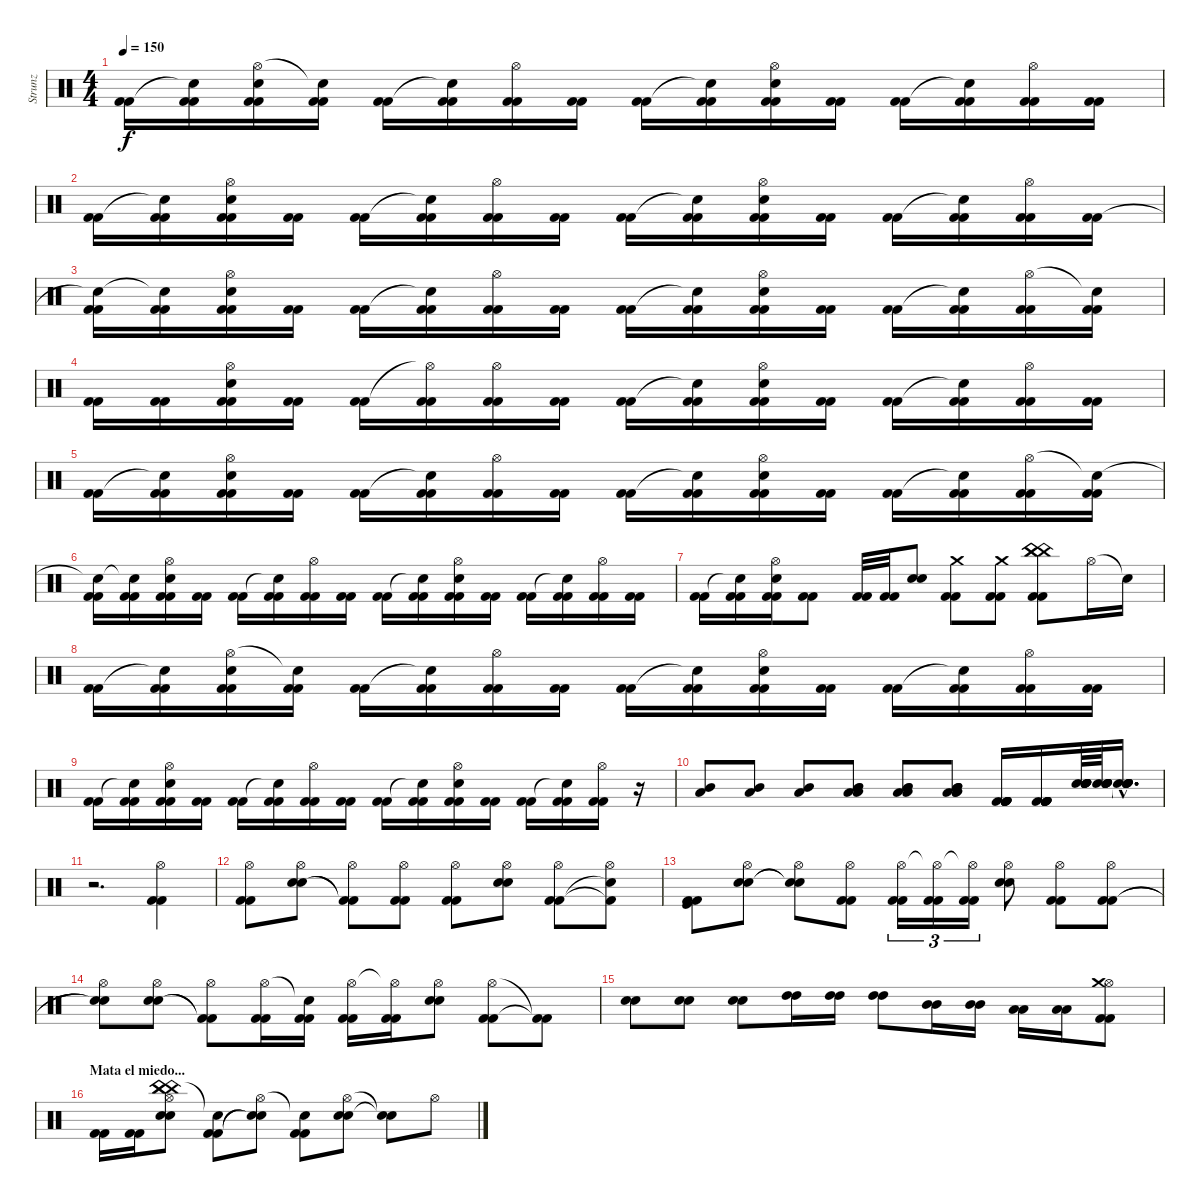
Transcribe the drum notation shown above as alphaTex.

\track ("Strunz" "Strunz") {instrument percussion}
\staff {score}
\articulation defaults
\ts (4 4)
\tempo 150
\clef neutral
\ks c
("Kick (hit) 2" "Kick (hit) 2").16{dy f} ("Snare (hit)"{t} "Kick (hit) 2" "Kick (hit) 2").16 ("Hi-Hat (open)" "Snare (hit) 2" "Kick (hit) 2" "Kick (hit) 2").16 ("Snare (hit)"{t} "Kick (hit) 2" "Kick (hit) 2").16 ("Kick (hit) 2" "Kick (hit) 2").16 ("Snare (hit)"{t} "Kick (hit) 2" "Kick (hit) 2").16 ("Hi-Hat (open)" "Kick (hit) 2" "Kick (hit) 2").16 ("Kick (hit) 2" "Kick (hit) 2").16 ("Kick (hit) 2" "Kick (hit) 2").16 ("Snare (hit)"{t} "Kick (hit) 2" "Kick (hit) 2").16 ("Hi-Hat (open)" "Snare (hit) 2" "Kick (hit) 2" "Kick (hit) 2").16 ("Kick (hit) 2" "Kick (hit) 2").16 ("Kick (hit) 2" "Kick (hit) 2").16 ("Snare (hit)"{t} "Kick (hit) 2" "Kick (hit) 2").16 ("Hi-Hat (open)" "Kick (hit) 2" "Kick (hit) 2").16 ("Kick (hit) 2" "Kick (hit) 2").16 |
("Kick (hit) 2" "Kick (hit) 2").16 ("Snare (hit)"{t} "Kick (hit) 2" "Kick (hit) 2").16 ("Hi-Hat (open)" "Snare (hit) 2" "Kick (hit) 2" "Kick (hit) 2").16 ("Kick (hit) 2" "Kick (hit) 2").16 ("Kick (hit) 2" "Kick (hit) 2").16 ("Snare (hit)"{t} "Kick (hit) 2" "Kick (hit) 2").16 ("Hi-Hat (open)" "Kick (hit) 2" "Kick (hit) 2").16 ("Kick (hit) 2" "Kick (hit) 2").16 ("Kick (hit) 2" "Kick (hit) 2").16 ("Snare (hit)"{t} "Kick (hit) 2" "Kick (hit) 2").16 ("Hi-Hat (open)" "Snare (hit) 2" "Kick (hit) 2" "Kick (hit) 2").16 ("Kick (hit) 2" "Kick (hit) 2").16 ("Kick (hit) 2" "Kick (hit) 2").16 ("Snare (hit)"{t} "Kick (hit) 2" "Kick (hit) 2").16 ("Hi-Hat (open)" "Kick (hit) 2" "Kick (hit) 2").16 ("Kick (hit) 2" "Kick (hit) 2").16 |
("Snare (hit)"{t} "Kick (hit) 2" "Kick (hit) 2").16 ("Snare (hit)"{t} "Kick (hit) 2" "Kick (hit) 2").16 ("Hi-Hat (open)" "Snare (hit) 2" "Kick (hit) 2" "Kick (hit) 2").16 ("Kick (hit) 2" "Kick (hit) 2").16 ("Kick (hit) 2" "Kick (hit) 2").16 ("Snare (hit)"{t} "Kick (hit) 2" "Kick (hit) 2").16 ("Hi-Hat (open)" "Kick (hit) 2" "Kick (hit) 2").16 ("Kick (hit) 2" "Kick (hit) 2").16 ("Kick (hit) 2" "Kick (hit) 2").16 ("Snare (hit)"{t} "Kick (hit) 2" "Kick (hit) 2").16 ("Hi-Hat (open)" "Snare (hit) 2" "Kick (hit) 2" "Kick (hit) 2").16 ("Kick (hit) 2" "Kick (hit) 2").16 ("Kick (hit) 2" "Kick (hit) 2").16 ("Snare (hit)"{t} "Kick (hit) 2" "Kick (hit) 2").16 ("Hi-Hat (open)" "Kick (hit) 2" "Kick (hit) 2").16 ("Snare (hit)"{t} "Kick (hit) 2" "Kick (hit) 2").16 |
("Kick (hit) 2" "Kick (hit) 2").16 ("Kick (hit) 2" "Kick (hit) 2").16 ("Hi-Hat (open)" "Snare (hit) 2" "Kick (hit) 2" "Kick (hit) 2").16 ("Kick (hit) 2" "Kick (hit) 2").16 ("Kick (hit) 2" "Kick (hit) 2").16 ("Hi-Hat (open)"{t} "Kick (hit) 2" "Kick (hit) 2").16 ("Hi-Hat (open)" "Kick (hit) 2" "Kick (hit) 2").16 ("Kick (hit) 2" "Kick (hit) 2").16 ("Kick (hit) 2" "Kick (hit) 2").16 ("Snare (hit)"{t} "Kick (hit) 2" "Kick (hit) 2").16 ("Hi-Hat (open)" "Snare (hit) 2" "Kick (hit) 2" "Kick (hit) 2").16 ("Kick (hit) 2" "Kick (hit) 2").16 ("Kick (hit) 2" "Kick (hit) 2").16 ("Snare (hit)"{t} "Kick (hit) 2" "Kick (hit) 2").16 ("Hi-Hat (open)" "Kick (hit) 2" "Kick (hit) 2").16 ("Kick (hit) 2" "Kick (hit) 2").16 |
("Kick (hit) 2" "Kick (hit) 2").16 ("Snare (hit)"{t} "Kick (hit) 2" "Kick (hit) 2").16 ("Hi-Hat (open)" "Snare (hit) 2" "Kick (hit) 2" "Kick (hit) 2").16 ("Kick (hit) 2" "Kick (hit) 2").16 ("Kick (hit) 2" "Kick (hit) 2").16 ("Snare (hit)"{t} "Kick (hit) 2" "Kick (hit) 2").16 ("Hi-Hat (open)" "Kick (hit) 2" "Kick (hit) 2").16 ("Kick (hit) 2" "Kick (hit) 2").16 ("Kick (hit) 2" "Kick (hit) 2").16 ("Snare (hit)"{t} "Kick (hit) 2" "Kick (hit) 2").16 ("Hi-Hat (open)" "Snare (hit) 2" "Kick (hit) 2" "Kick (hit) 2").16 ("Kick (hit) 2" "Kick (hit) 2").16 ("Kick (hit) 2" "Kick (hit) 2").16 ("Snare (hit)"{t} "Kick (hit) 2" "Kick (hit) 2").16 ("Hi-Hat (open)" "Kick (hit) 2" "Kick (hit) 2").16 ("Snare (hit)"{t} "Kick (hit) 2" "Kick (hit) 2").16 |
("Snare (hit)"{t} "Kick (hit) 2" "Kick (hit) 2").16 ("Snare (hit)"{t} "Kick (hit) 2" "Kick (hit) 2").16 ("Hi-Hat (open)" "Snare (hit) 2" "Kick (hit) 2" "Kick (hit) 2").16 ("Kick (hit) 2" "Kick (hit) 2").16 ("Kick (hit) 2" "Kick (hit) 2").16 ("Snare (hit)"{t} "Kick (hit) 2" "Kick (hit) 2").16 ("Hi-Hat (open)" "Kick (hit) 2" "Kick (hit) 2").16 ("Kick (hit) 2" "Kick (hit) 2").16 ("Kick (hit) 2" "Kick (hit) 2").16 ("Snare (hit)"{t} "Kick (hit) 2" "Kick (hit) 2").16 ("Hi-Hat (open)" "Snare (hit) 2" "Kick (hit) 2" "Kick (hit) 2").16 ("Kick (hit) 2" "Kick (hit) 2").16 ("Kick (hit) 2" "Kick (hit) 2").16 ("Snare (hit)"{t} "Kick (hit) 2" "Kick (hit) 2").16 ("Hi-Hat (open)" "Kick (hit) 2" "Kick (hit) 2").16 ("Kick (hit) 2" "Kick (hit) 2").16 |
("Kick (hit) 2" "Kick (hit) 2").16 ("Snare (hit)"{t} "Kick (hit) 2" "Kick (hit) 2").16 ("Hi-Hat (open)" "Snare (hit) 2" "Kick (hit) 2" "Kick (hit) 2").16 ("Kick (hit) 2" "Kick (hit) 2").8 ("Kick (hit) 2" "Kick (hit) 2").32 ("Kick (hit) 2" "Kick (hit) 2").32 ("Snare (hit) 2" "Snare (hit) 2").8 ("Crash medium (hit)" "Kick (hit) 2" "Kick (hit) 2").8 ("Crash medium (hit)" "Kick (hit) 2" "Kick (hit) 2").8 ("China (hit)" "China (hit)" "China (hit)" "Kick (hit) 2" "Kick (hit) 2").8 "Hi-Hat (open)".16 "Snare (hit)"{t}.16 |
("Kick (hit) 2" "Kick (hit) 2").16 ("Snare (hit)"{t} "Kick (hit) 2" "Kick (hit) 2").16 ("Hi-Hat (open)" "Snare (hit) 2" "Kick (hit) 2" "Kick (hit) 2").16 ("Snare (hit)"{t} "Kick (hit) 2" "Kick (hit) 2").16 ("Kick (hit) 2" "Kick (hit) 2").16 ("Snare (hit)"{t} "Kick (hit) 2" "Kick (hit) 2").16 ("Hi-Hat (open)" "Kick (hit) 2" "Kick (hit) 2").16 ("Kick (hit) 2" "Kick (hit) 2").16 ("Kick (hit) 2" "Kick (hit) 2").16 ("Snare (hit)"{t} "Kick (hit) 2" "Kick (hit) 2").16 ("Hi-Hat (open)" "Snare (hit) 2" "Kick (hit) 2" "Kick (hit) 2").16 ("Kick (hit) 2" "Kick (hit) 2").16 ("Kick (hit) 2" "Kick (hit) 2").16 ("Snare (hit)"{t} "Kick (hit) 2" "Kick (hit) 2").16 ("Hi-Hat (open)" "Kick (hit) 2" "Kick (hit) 2").16 ("Kick (hit) 2" "Kick (hit) 2").16 |
("Kick (hit) 2" "Kick (hit) 2").16 ("Snare (hit)"{t} "Kick (hit) 2" "Kick (hit) 2").16 ("Hi-Hat (open)" "Snare (hit) 2" "Kick (hit) 2" "Kick (hit) 2").16 ("Kick (hit) 2" "Kick (hit) 2").16 ("Kick (hit) 2" "Kick (hit) 2").16 ("Snare (hit)"{t} "Kick (hit) 2" "Kick (hit) 2").16 ("Hi-Hat (open)" "Kick (hit) 2" "Kick (hit) 2").16 ("Kick (hit) 2" "Kick (hit) 2").16 ("Kick (hit) 2" "Kick (hit) 2").16 ("Snare (hit)"{t} "Kick (hit) 2" "Kick (hit) 2").16 ("Hi-Hat (open)" "Snare (hit) 2" "Kick (hit) 2" "Kick (hit) 2").16 ("Kick (hit) 2" "Kick (hit) 2").16 ("Kick (hit) 2" "Kick (hit) 2").16 ("Snare (hit)"{t} "Kick (hit) 2" "Kick (hit) 2").16 ("Hi-Hat (open)" "Kick (hit) 2" "Kick (hit) 2").16 r.16 |
("Mid Tom (hit)" "Low Tom (hit)").8 ("Mid Tom (hit)" "Low Tom (hit)").8 ("Mid Tom (hit)" "Low Tom (hit)").8 ("Low Tom (hit)" "Low Tom (hit)" "Mid Tom (hit)" "Mid Tom (hit)").8 ("Low Tom (hit)" "Low Tom (hit)" "Mid Tom (hit)" "Mid Tom (hit)").8 ("Low Tom (hit)" "Low Tom (hit)" "Low Tom (hit)" "Mid Tom (hit)" "Mid Tom (hit)" "Mid Tom (hit)").8 ("Kick (hit) 2" "Kick (hit) 2" "Kick (hit) 2" "Kick (hit) 2" "Kick (hit) 2" "Kick (hit) 2").16 ("Kick (hit) 2" "Kick (hit) 2" "Kick (hit) 2" "Kick (hit) 2" "Kick (hit) 2" "Kick (hit) 2").16 ("Snare (hit) 2" "Snare (hit) 2" "Snare (hit) 2" "Snare (hit) 2" "Snare (hit) 2" "Snare (hit) 2").64 ("Snare (hit) 2" "Snare (hit) 2" "Snare (hit) 2" "Snare (hit) 2" "Snare (hit) 2" "Snare (hit) 2").64 ("Snare (hit)"{hac t} "Snare (hit)"{hac t} "Snare (hit)"{hac t} "Snare (hit)"{hac t} "Snare (hit)"{hac t} "Snare (hit)"{hac t}).16{d} |
r.2{d} ("Hi-Hat (open)" "Kick (hit) 2" "Kick (hit) 2").4 |
("Hi-Hat (open)" "Kick (hit) 2" "Kick (hit) 2").8 ("Hi-Hat (open)" "Snare (hit) 2" "Snare (hit) 2").8 ("Hi-Hat (open)" "Kick (hit) 2"{t} "Kick (hit) 2"{t}).8 ("Hi-Hat (open)" "Kick (hit) 2" "Kick (hit) 2").8 ("Hi-Hat (open)" "Kick (hit) 2" "Kick (hit) 2").8 ("Hi-Hat (open)" "Snare (hit) 2" "Snare (hit) 2").8 ("Hi-Hat (open)" "Kick (hit) 2" "Kick (hit) 2").8 ("Hi-Hat (open)" "Kick (hit) 2"{t} "Snare (hit)"{t}).8 |
("Kick (hit)" "Kick (hit) 2" "Kick (hit) 2").8 ("Hi-Hat (open)" "Snare (hit) 2" "Snare (hit) 2").8 ("Hi-Hat (open)" "Snare (hit)"{t} "Snare (hit)"{t}).8 ("Hi-Hat (open)" "Kick (hit) 2" "Kick (hit) 2").8 ("Hi-Hat (open)" "Kick (hit) 2" "Kick (hit) 2").16{tu (3 2)} ("Hi-Hat (open)"{t} "Kick (hit) 2" "Kick (hit) 2").16{tu (3 2)} ("Hi-Hat (open)"{t} "Kick (hit) 2" "Kick (hit) 2").16{tu (3 2)} ("Hi-Hat (open)" "Snare (hit) 2" "Snare (hit) 2").8 ("Hi-Hat (open)" "Kick (hit) 2" "Kick (hit) 2").8 ("Hi-Hat (open)" "Kick (hit) 2" "Kick (hit) 2").8 |
("Hi-Hat (open)" "Snare (hit) 2"{t} "Snare (hit) 2"{t}).8 ("Hi-Hat (open)" "Snare (hit) 2" "Snare (hit) 2").8 ("Hi-Hat (open)" "Kick (hit) 2"{t} "Kick (hit) 2"{t}).8 ("Hi-Hat (open)" "Kick (hit) 2" "Kick (hit) 2").16 ("Snare (hit)"{t} "Kick (hit) 2" "Kick (hit) 2").16 ("Hi-Hat (open)" "Kick (hit) 2" "Kick (hit) 2").16 ("Hi-Hat (open)"{t} "Kick (hit) 2" "Kick (hit) 2").16 ("Hi-Hat (open)" "Snare (hit) 2" "Snare (hit) 2").8 ("Hi-Hat (open)" "Kick (hit) 2" "Kick (hit) 2").8 ("Kick (hit) 2"{t} "Kick (hit) 2"{t}).8 |
("Snare (hit) 2" "Snare (hit) 2").8 ("Snare (hit) 2" "Snare (hit) 2").8 ("Snare (hit) 2" "Snare (hit) 2").8 ("High Tom (hit)" "High Tom (hit)").16 ("High Tom (hit)" "High Tom (hit)").16 ("High Tom (hit)" "High Tom (hit)").8 ("Mid Tom (hit)" "Mid Tom (hit)").16 ("Mid Tom (hit)" "Mid Tom (hit)").16 ("Low Tom (hit)" "Low Tom (hit)").16 ("Low Tom (hit)" "Low Tom (hit)").16 ("Hi-Hat (open)" "Crash medium (hit)" "Kick (hit) 2" "Kick (hit) 2").8 |
\section ("" "Mata el miedo...")
("Kick (hit) 2" "Kick (hit) 2").16 ("Kick (hit) 2" "Kick (hit) 2").16 ("China (hit)" "Hi-Hat (open)" "China (hit)" "Snare (hit) 2" "Snare (hit) 2" "China (hit)").8 ("Snare (hit)"{t} "Kick (hit) 2" "Kick (hit) 2").8 ("Hi-Hat (open)" "Snare (hit)"{t} "Snare (hit)"{t}).8 ("Snare (hit)"{t} "Kick (hit) 2" "Kick (hit) 2").8 ("Hi-Hat (open)" "Snare (hit) 2" "Snare (hit) 2").8 ("Snare (hit)"{t} "Snare (hit)"{t}).8 "Hi-Hat (open)".8
